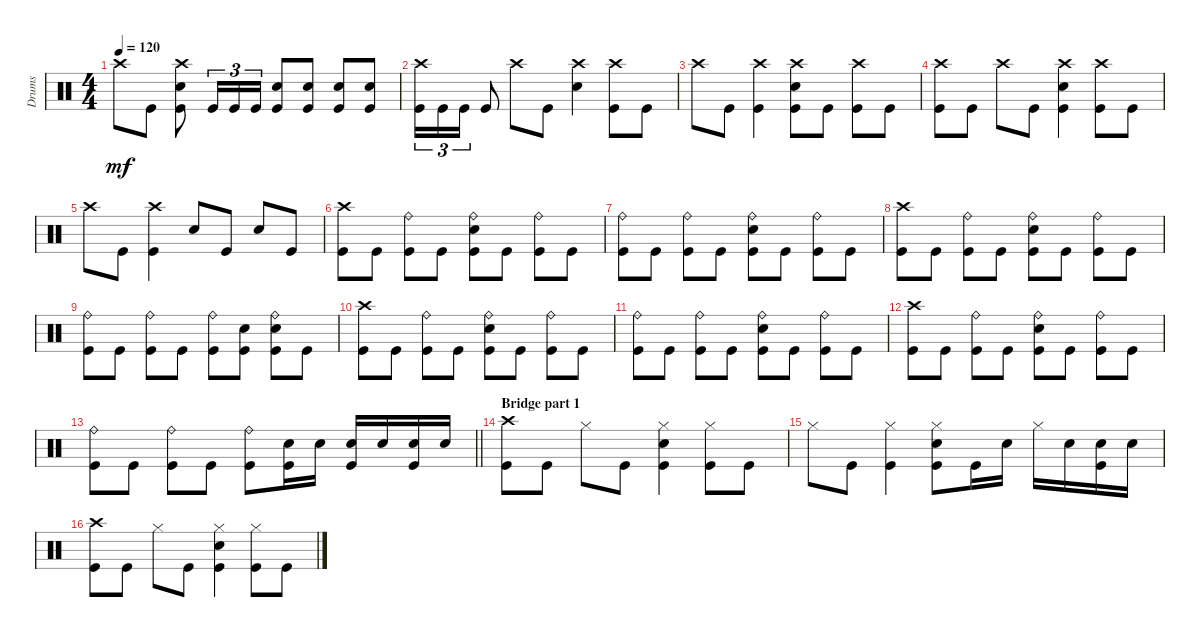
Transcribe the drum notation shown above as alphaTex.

\track ("Drums" "Drums") {instrument percussion}
\staff {score}
\articulation defaults
\ts (4 4)
\tempo 120
\clef neutral
\ks c "Crash high (hit)".8{dy mf} "Kick (hit)".8
("Kick (hit)" "Snare (hit) 2" "Crash high (hit)").8 "Kick (hit)".16{tu (3 2)} "Kick (hit)".16{tu (3 2)} "Kick (hit)".16{tu (3 2)} ("Kick (hit)" "Snare (hit) 2").8 ("Kick (hit)" "Snare (hit) 2").8 ("Kick (hit)" "Snare (hit) 2").8 ("Kick (hit)" "Snare (hit) 2").8 |
("Crash high (hit)" "Kick (hit)").16{tu (3 2)} "Kick (hit)".16{tu (3 2)} "Kick (hit)".16{tu (3 2)} "Kick (hit)".8 "Crash high (hit)".8 "Kick (hit)".8 ("Snare (hit) 2" "Crash high (hit)").4 ("Crash high (hit)" "Kick (hit)").8 "Kick (hit)".8 |
"Crash high (hit)".8 "Kick (hit)".8 ("Crash high (hit)" "Kick (hit)").4 ("Snare (hit) 2" "Crash high (hit)" "Kick (hit)").8 "Kick (hit)".8 ("Kick (hit)" "Crash high (hit)").8 "Kick (hit)".8 |
("Kick (hit)" "Crash high (hit)").8 "Kick (hit)".8 "Crash high (hit)".8 "Kick (hit)".8 ("Kick (hit)" "Snare (hit) 2" "Crash high (hit)").4 ("Kick (hit)" "Crash high (hit)").8 "Kick (hit)".8 |
"Crash high (hit)".8 "Kick (hit)".8 ("Kick (hit)" "Crash high (hit)").4 "Snare (hit) 2".8 "Kick (hit)".8 "Snare (hit) 2".8 "Kick (hit)".8 |
("Crash high (hit)" "Kick (hit)").8 "Kick (hit)".8 ("Ride (bell)" "Kick (hit)").8 "Kick (hit)".8 ("Snare (hit) 2" "Ride (bell)" "Kick (hit)").8 "Kick (hit)".8 ("Ride (bell)" "Kick (hit)").8 "Kick (hit)".8 |
("Kick (hit)" "Ride (bell)").8 "Kick (hit)".8 ("Kick (hit)" "Ride (bell)").8 "Kick (hit)".8 ("Kick (hit)" "Snare (hit) 2" "Ride (bell)").8 "Kick (hit)".8 ("Kick (hit)" "Ride (bell)").8 "Kick (hit)".8 |
("Kick (hit)" "Crash high (hit)").8 "Kick (hit)".8 ("Kick (hit)" "Ride (bell)").8 "Kick (hit)".8 ("Kick (hit)" "Snare (hit) 2" "Ride (bell)").8 "Kick (hit)".8 ("Kick (hit)" "Ride (bell)").8 "Kick (hit)".8 |
("Ride (bell)" "Kick (hit)").8 "Kick (hit)".8 ("Ride (bell)" "Kick (hit)").8 "Kick (hit)".8 ("Ride (bell)" "Kick (hit)").8 ("Snare (hit) 2" "Kick (hit)").8 ("Snare (hit) 2" "Ride (bell)" "Kick (hit)").8 "Kick (hit)".8 |
("Kick (hit)" "Crash high (hit)").8 "Kick (hit)".8 ("Kick (hit)" "Ride (bell)").8 "Kick (hit)".8 ("Kick (hit)" "Snare (hit) 2" "Ride (bell)").8 "Kick (hit)".8 ("Kick (hit)" "Ride (bell)").8 "Kick (hit)".8 |
("Ride (bell)" "Kick (hit)").8 "Kick (hit)".8 ("Ride (bell)" "Kick (hit)").8 "Kick (hit)".8 ("Snare (hit) 2" "Ride (bell)" "Kick (hit)").8 "Kick (hit)".8 ("Ride (bell)" "Kick (hit)").8 "Kick (hit)".8 |
("Crash high (hit)" "Kick (hit)").8 "Kick (hit)".8 ("Ride (bell)" "Kick (hit)").8 "Kick (hit)".8 ("Snare (hit) 2" "Ride (bell)" "Kick (hit)").8 "Kick (hit)".8 ("Ride (bell)" "Kick (hit)").8 "Kick (hit)".8 |
\barLineRight lightlight
("Kick (hit)" "Ride (bell)").8 "Kick (hit)".8 ("Kick (hit)" "Ride (bell)").8 "Kick (hit)".8 ("Kick (hit)" "Ride (bell)").8 ("Kick (hit)" "Snare (hit) 2").16 "Snare (hit) 2".16 ("Snare (hit) 2" "Kick (hit)").16 "Snare (hit) 2".16 ("Snare (hit) 2" "Kick (hit)").16 "Snare (hit) 2".16 |
\section ("" "Bridge part 1")
("Crash high (hit)" "Kick (hit)").8 "Kick (hit)".8 "Hi-Hat (closed)".8 "Kick (hit)".8 ("Snare (hit) 2" "Hi-Hat (closed)" "Kick (hit)").4 ("Hi-Hat (closed)" "Kick (hit)").8 "Kick (hit)".8 |
"Hi-Hat (closed)".8 "Kick (hit)".8 ("Kick (hit)" "Hi-Hat (closed)").4 ("Kick (hit)" "Snare (hit) 2" "Hi-Hat (closed)").8 "Kick (hit)".16 "Snare (hit) 2".16 "Hi-Hat (closed)".16 "Snare (hit) 2".16 ("Kick (hit)" "Snare (hit) 2").16 "Snare (hit) 2".16 |
("Kick (hit)" "Crash high (hit)").8 "Kick (hit)".8 "Hi-Hat (closed)".8 "Kick (hit)".8 ("Kick (hit)" "Snare (hit) 2" "Hi-Hat (closed)").4 ("Kick (hit)" "Hi-Hat (closed)").8 "Kick (hit)".8
